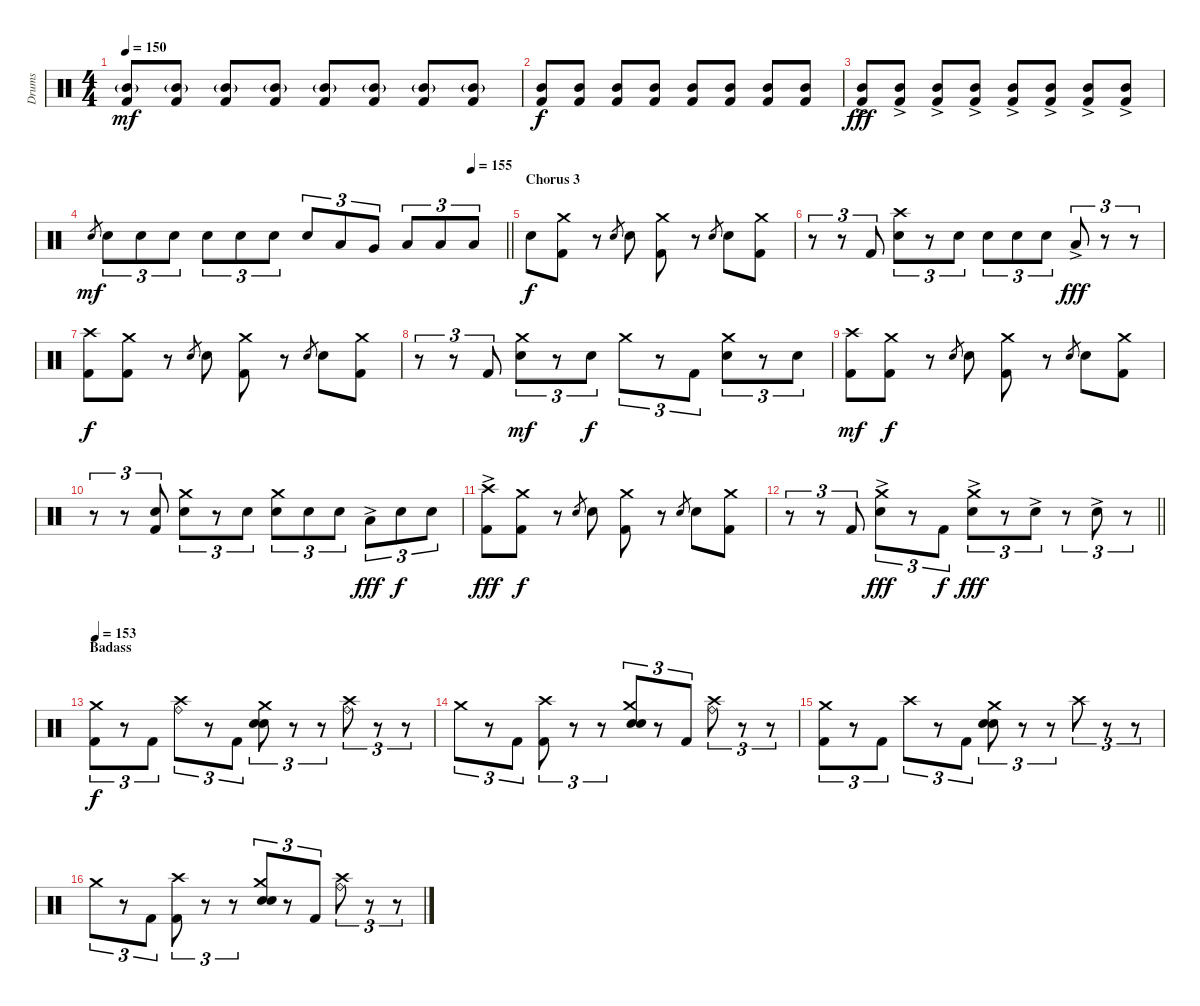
\track ("Drums" "Drums") {instrument percussion}
\staff {score}
\articulation defaults
\ts (4 4)
\tempo 150
\clef neutral
\ks c
("Mid Tom (hit)"{g} "Kick (hit) 2").8{dy mf} ("Mid Tom (hit)"{g} "Kick (hit) 2").8 ("Mid Tom (hit)"{g} "Kick (hit) 2").8 ("Mid Tom (hit)"{g} "Kick (hit) 2").8 ("Mid Tom (hit)"{g} "Kick (hit) 2").8 ("Mid Tom (hit)"{g} "Kick (hit) 2").8 ("Mid Tom (hit)"{g} "Kick (hit) 2").8 ("Mid Tom (hit)"{g} "Kick (hit) 2").8 |
("Mid Tom (hit)" "Kick (hit) 2").8{dy f} ("Mid Tom (hit)" "Kick (hit) 2").8 ("Mid Tom (hit)" "Kick (hit) 2").8 ("Mid Tom (hit)" "Kick (hit) 2").8 ("Mid Tom (hit)" "Kick (hit) 2").8 ("Mid Tom (hit)" "Kick (hit) 2").8 ("Mid Tom (hit)" "Kick (hit) 2").8 ("Mid Tom (hit)" "Kick (hit) 2").8 |
("Mid Tom (hit)"{ac} "Kick (hit) 2").8{dy fff} ("Mid Tom (hit)"{ac} "Kick (hit) 2").8 ("Mid Tom (hit)"{ac} "Kick (hit) 2").8 ("Mid Tom (hit)"{ac} "Kick (hit) 2").8 ("Mid Tom (hit)"{ac} "Kick (hit) 2").8 ("Mid Tom (hit)"{ac} "Kick (hit) 2").8 ("Mid Tom (hit)"{ac} "Kick (hit) 2").8 ("Mid Tom (hit)"{ac} "Kick (hit) 2").8 |
\tempo (155 0.9166666666666666)
\barLineRight lightlight "Electric Snare (hit)".8{gr dy mf} "Electric Snare (hit)".8{tu (3 2)} "Electric Snare (hit)".8{tu (3 2)} "Electric Snare (hit)".8{tu (3 2)} "Electric Snare (hit)".8{tu (3 2)} "Electric Snare (hit)".8{tu (3 2)} "Electric Snare (hit)".8{tu (3 2)} "Electric Snare (hit)".8{tu (3 2)} "Low Tom (hit)".8{tu (3 2)} "Very Low Tom (hit)".8{tu (3 2)} "Low Floor Tom (hit)".8{tu (3 2)} "Low Floor Tom (hit)".8{tu (3 2)} "Low Floor Tom (hit)".8{tu (3 2)}
|
\section ("" "Chorus 3")
"Electric Snare (hit)".8{dy f} ("Crash medium (hit)" "Kick (hit) 2").8 r.8 "Snare (hit) 2".8{gr} "Electric Snare (hit)".8 ("Crash medium (hit)" "Kick (hit) 2").8 r.8 "Snare (hit) 2".8{gr} "Electric Snare (hit)".8 ("Crash medium (hit)" "Kick (hit) 2").8 |
r.8{tu (3 2)} r.8{tu (3 2)} "Kick (hit) 2".8{tu (3 2)} ("Crash high (hit)" "Electric Snare (hit)").8{tu (3 2)} r.8{tu (3 2)} "Electric Snare (hit)".8{tu (3 2)} "Electric Snare (hit)".8{tu (3 2)} "Electric Snare (hit)".8{tu (3 2)} "Electric Snare (hit)".8{tu (3 2)} "Low Floor Tom (hit)"{ac}.8{tu (3 2) dy fff} r.8{tu (3 2)} r.8{tu (3 2)} |
("Crash high (hit)" "Kick (hit) 2").8{dy f} ("Crash medium (hit)" "Kick (hit) 2").8 r.8 "Snare (hit) 2".8{gr} "Electric Snare (hit)".8 ("Crash medium (hit)" "Kick (hit) 2").8 r.8 "Snare (hit) 2".8{gr} "Electric Snare (hit)".8 ("Crash medium (hit)" "Kick (hit) 2").8 |
r.8{tu (3 2)} r.8{tu (3 2)} "Kick (hit) 2".8{tu (3 2)} ("Crash medium (hit)" "Electric Snare (hit)").8{tu (3 2) dy mf} r.8{tu (3 2)} "Electric Snare (hit)".8{tu (3 2) dy f} "Crash medium (hit)".8{tu (3 2)} r.8{tu (3 2)} "Kick (hit) 2".8{tu (3 2)} ("Crash medium (hit)" "Electric Snare (hit)").8{tu (3 2)} r.8{tu (3 2)} "Electric Snare (hit)".8{tu (3 2)} |
("Crash high (hit)" "Kick (hit) 2").8{dy mf} ("Crash medium (hit)" "Kick (hit) 2").8{dy f} r.8 "Snare (hit) 2".8{gr} "Electric Snare (hit)".8 ("Crash medium (hit)" "Kick (hit) 2").8 r.8 "Snare (hit) 2".8{gr} "Electric Snare (hit)".8 ("Crash medium (hit)" "Kick (hit) 2").8 |
r.8{tu (3 2)} r.8{tu (3 2)} ("Electric Snare (hit)" "Kick (hit) 2").8{tu (3 2)} ("Crash medium (hit)" "Electric Snare (hit)").8{tu (3 2)} r.8{tu (3 2)} "Electric Snare (hit)".8{tu (3 2)} ("Crash medium (hit)" "Electric Snare (hit)").8{tu (3 2)} "Electric Snare (hit)".8{tu (3 2)} "Electric Snare (hit)".8{tu (3 2)} "Low Floor Tom (hit)"{ac}.8{tu (3 2) dy fff} "Electric Snare (hit)".8{tu (3 2) dy f} "Electric Snare (hit)".8{tu (3 2)} |
("Crash high (hit)" "Kick (hit) 2"{ac}).8{dy fff} ("Crash medium (hit)" "Kick (hit) 2").8{dy f} r.8 "Snare (hit) 2".8{gr} "Electric Snare (hit)".8 ("Crash medium (hit)" "Kick (hit) 2").8 r.8 "Snare (hit) 2".8{gr} "Electric Snare (hit)".8 ("Crash medium (hit)" "Kick (hit) 2").8 |
\barLineRight lightlight
r.8{tu (3 2)} r.8{tu (3 2)} "Kick (hit) 2".8{tu (3 2)} ("Crash medium (hit)" "Electric Snare (hit)"{ac}).8{tu (3 2) dy fff} r.8{tu (3 2)} "Kick (hit) 2".8{tu (3 2) dy f} ("Crash medium (hit)" "Electric Snare (hit)"{ac}).8{tu (3 2) dy fff} r.8{tu (3 2)} "Electric Snare (hit)"{ac}.8{tu (3 2)} r.8{tu (3 2)} "Electric Snare (hit)"{ac}.8{tu (3 2)} r.8{tu (3 2)} |
\section ("" "Badass")
\tempo 153
("Crash medium (hit)" "Kick (hit) 2").8{tu (3 2) dy f} r.8{tu (3 2)} "Kick (hit) 2".8{tu (3 2)} ("Crash high (hit)" "Ride (bell)").8{tu (3 2)} r.8{tu (3 2)} "Kick (hit) 2".8{tu (3 2)} ("Crash medium (hit)" "Snare (hit) 2" "Electric Snare (hit)").8{tu (3 2)} r.8{tu (3 2)} r.8{tu (3 2)} ("Crash high (hit)" "Ride (bell)").8{tu (3 2)} r.8{tu (3 2)} r.8{tu (3 2)} |
"Crash medium (hit)".8{tu (3 2)} r.8{tu (3 2)} "Kick (hit) 2".8{tu (3 2)} ("Crash high (hit)" "Kick (hit) 2").8{tu (3 2)} r.8{tu (3 2)} r.8{tu (3 2)} ("Crash medium (hit)" "Snare (hit) 2" "Electric Snare (hit)").8{tu (3 2)} r.8{tu (3 2)} "Kick (hit) 2".8{tu (3 2)} ("Crash high (hit)" "Ride (bell)").8{tu (3 2)} r.8{tu (3 2)} r.8{tu (3 2)} |
("Crash medium (hit)" "Kick (hit) 2").8{tu (3 2)} r.8{tu (3 2)} "Kick (hit) 2".8{tu (3 2)} "Crash high (hit)".8{tu (3 2)} r.8{tu (3 2)} "Kick (hit) 2".8{tu (3 2)} ("Crash medium (hit)" "Snare (hit) 2" "Electric Snare (hit)").8{tu (3 2)} r.8{tu (3 2)} r.8{tu (3 2)} "Crash high (hit)".8{tu (3 2)} r.8{tu (3 2)} r.8{tu (3 2)} |
"Crash medium (hit)".8{tu (3 2)} r.8{tu (3 2)} "Kick (hit) 2".8{tu (3 2)} ("Crash high (hit)" "Kick (hit) 2").8{tu (3 2)} r.8{tu (3 2)} r.8{tu (3 2)} ("Crash medium (hit)" "Snare (hit) 2" "Electric Snare (hit)").8{tu (3 2)} r.8{tu (3 2)} "Kick (hit) 2".8{tu (3 2)} ("Crash high (hit)" "Ride (bell)").8{tu (3 2)} r.8{tu (3 2)} r.8{tu (3 2)}
